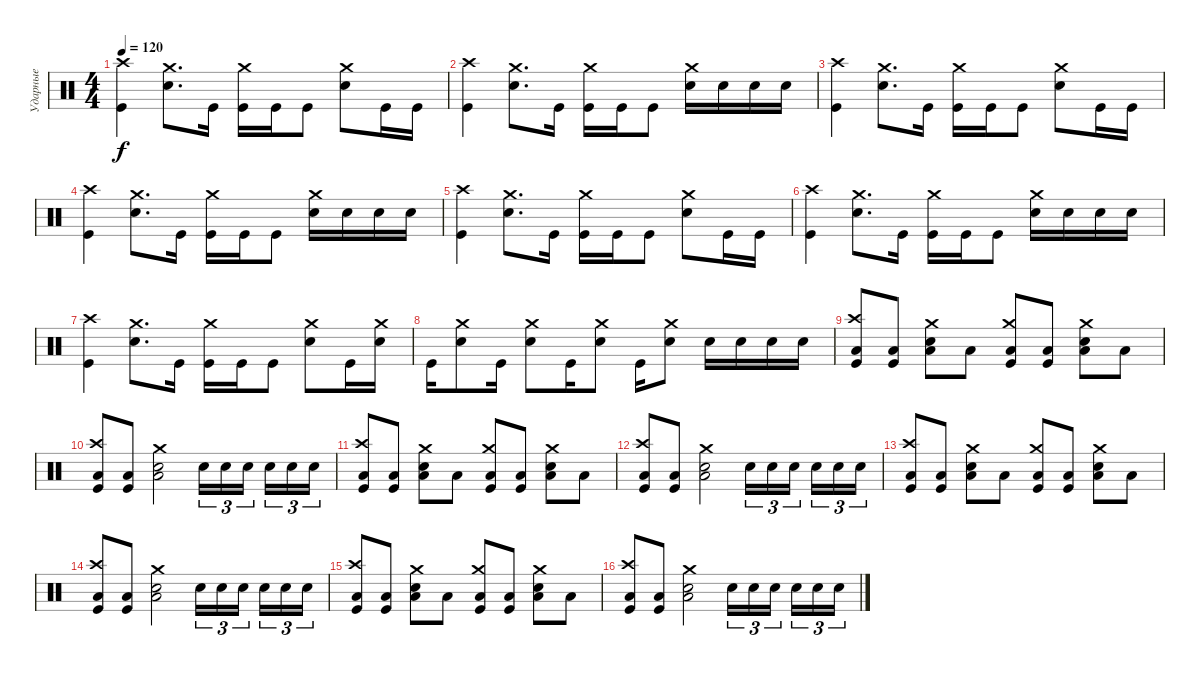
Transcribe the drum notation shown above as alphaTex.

\track ("Ударные" "Ударные") {instrument percussion}
\staff {score}
\articulation defaults
\ts (4 4)
\tempo 120
\clef neutral
\ks c
("Kick (hit)" "Crash high (hit)").4{dy f} ("Snare (hit) 2" "Crash medium (hit)").8{d} "Kick (hit)".16 ("Kick (hit)" "Crash medium (hit)").16 "Kick (hit)".16 "Kick (hit)".8 ("Snare (hit) 2" "Crash medium (hit)").8 "Kick (hit)".16 "Kick (hit)".16 |
("Kick (hit)" "Crash high (hit)").4 ("Snare (hit) 2" "Crash medium (hit)").8{d} "Kick (hit)".16 ("Kick (hit)" "Crash medium (hit)").16 "Kick (hit)".16 "Kick (hit)".8 ("Snare (hit) 2" "Crash medium (hit)").16 "Snare (hit) 2".16 "Snare (hit) 2".16 "Snare (hit) 2".16 |
("Kick (hit)" "Crash high (hit)").4 ("Snare (hit) 2" "Crash medium (hit)").8{d} "Kick (hit)".16 ("Kick (hit)" "Crash medium (hit)").16 "Kick (hit)".16 "Kick (hit)".8 ("Snare (hit) 2" "Crash medium (hit)").8 "Kick (hit)".16 "Kick (hit)".16 |
("Kick (hit)" "Crash high (hit)").4 ("Snare (hit) 2" "Crash medium (hit)").8{d} "Kick (hit)".16 ("Kick (hit)" "Crash medium (hit)").16 "Kick (hit)".16 "Kick (hit)".8 ("Snare (hit) 2" "Crash medium (hit)").16 "Snare (hit) 2".16 "Snare (hit) 2".16 "Snare (hit) 2".16 |
("Kick (hit)" "Crash high (hit)").4 ("Snare (hit) 2" "Crash medium (hit)").8{d} "Kick (hit)".16 ("Kick (hit)" "Crash medium (hit)").16 "Kick (hit)".16 "Kick (hit)".8 ("Snare (hit) 2" "Crash medium (hit)").8 "Kick (hit)".16 "Kick (hit)".16 |
("Kick (hit)" "Crash high (hit)").4 ("Snare (hit) 2" "Crash medium (hit)").8{d} "Kick (hit)".16 ("Kick (hit)" "Crash medium (hit)").16 "Kick (hit)".16 "Kick (hit)".8 ("Snare (hit) 2" "Crash medium (hit)").16 "Snare (hit) 2".16 "Snare (hit) 2".16 "Snare (hit) 2".16 |
("Kick (hit)" "Crash high (hit)").4 ("Snare (hit) 2" "Crash medium (hit)").8{d} "Kick (hit)".16 ("Kick (hit)" "Crash medium (hit)").16 "Kick (hit)".16 "Kick (hit)".8 ("Snare (hit) 2" "Crash medium (hit)").8 "Kick (hit)".16 ("Snare (hit) 2" "Crash medium (hit)").16 |
"Kick (hit)".16 ("Snare (hit) 2" "Crash medium (hit)").8 "Kick (hit)".16 ("Snare (hit) 2" "Crash medium (hit)").8 "Kick (hit)".16 ("Snare (hit) 2" "Crash medium (hit)").8 "Kick (hit)".16 ("Snare (hit) 2" "Crash medium (hit)").8 "Snare (hit) 2".16 "Snare (hit) 2".16 "Snare (hit) 2".16 "Snare (hit) 2".16 |
("Low Tom (hit)" "Kick (hit)" "Crash high (hit)").8 ("Low Tom (hit)" "Kick (hit)").8 ("Low Tom (hit)" "Snare (hit) 2" "Crash medium (hit)").8 "Low Tom (hit)".8 ("Low Tom (hit)" "Kick (hit)" "Crash medium (hit)").8 ("Low Tom (hit)" "Kick (hit)").8 ("Low Tom (hit)" "Snare (hit) 2" "Crash medium (hit)").8 "Low Tom (hit)".8 |
("Low Tom (hit)" "Kick (hit)" "Crash high (hit)").8 ("Low Tom (hit)" "Kick (hit)").8 ("Low Tom (hit)" "Snare (hit) 2" "Crash medium (hit)").2 "Snare (hit) 2".16{tu (3 2)} "Snare (hit) 2".16{tu (3 2)} "Snare (hit) 2".16{tu (3 2) beam splitsecondary} "Snare (hit) 2".16{tu (3 2)} "Snare (hit) 2".16{tu (3 2)} "Snare (hit) 2".16{tu (3 2)} |
("Low Tom (hit)" "Kick (hit)" "Crash high (hit)").8 ("Low Tom (hit)" "Kick (hit)").8 ("Low Tom (hit)" "Snare (hit) 2" "Crash medium (hit)").8 "Low Tom (hit)".8 ("Low Tom (hit)" "Kick (hit)" "Crash medium (hit)").8 ("Low Tom (hit)" "Kick (hit)").8 ("Low Tom (hit)" "Snare (hit) 2" "Crash medium (hit)").8 "Low Tom (hit)".8 |
("Low Tom (hit)" "Kick (hit)" "Crash high (hit)").8 ("Low Tom (hit)" "Kick (hit)").8 ("Low Tom (hit)" "Snare (hit) 2" "Crash medium (hit)").2 "Snare (hit) 2".16{tu (3 2)} "Snare (hit) 2".16{tu (3 2)} "Snare (hit) 2".16{tu (3 2) beam splitsecondary} "Snare (hit) 2".16{tu (3 2)} "Snare (hit) 2".16{tu (3 2)} "Snare (hit) 2".16{tu (3 2)} |
("Low Tom (hit)" "Kick (hit)" "Crash high (hit)").8 ("Low Tom (hit)" "Kick (hit)").8 ("Low Tom (hit)" "Snare (hit) 2" "Crash medium (hit)").8 "Low Tom (hit)".8 ("Low Tom (hit)" "Kick (hit)" "Crash medium (hit)").8 ("Low Tom (hit)" "Kick (hit)").8 ("Low Tom (hit)" "Snare (hit) 2" "Crash medium (hit)").8 "Low Tom (hit)".8 |
("Low Tom (hit)" "Kick (hit)" "Crash high (hit)").8 ("Low Tom (hit)" "Kick (hit)").8 ("Low Tom (hit)" "Snare (hit) 2" "Crash medium (hit)").2 "Snare (hit) 2".16{tu (3 2)} "Snare (hit) 2".16{tu (3 2)} "Snare (hit) 2".16{tu (3 2) beam splitsecondary} "Snare (hit) 2".16{tu (3 2)} "Snare (hit) 2".16{tu (3 2)} "Snare (hit) 2".16{tu (3 2)} |
("Low Tom (hit)" "Kick (hit)" "Crash high (hit)").8 ("Low Tom (hit)" "Kick (hit)").8 ("Low Tom (hit)" "Snare (hit) 2" "Crash medium (hit)").8 "Low Tom (hit)".8 ("Low Tom (hit)" "Kick (hit)" "Crash medium (hit)").8 ("Low Tom (hit)" "Kick (hit)").8 ("Low Tom (hit)" "Snare (hit) 2" "Crash medium (hit)").8 "Low Tom (hit)".8 |
("Low Tom (hit)" "Kick (hit)" "Crash high (hit)").8 ("Low Tom (hit)" "Kick (hit)").8 ("Low Tom (hit)" "Snare (hit) 2" "Crash medium (hit)").2 "Snare (hit) 2".16{tu (3 2)} "Snare (hit) 2".16{tu (3 2)} "Snare (hit) 2".16{tu (3 2) beam splitsecondary} "Snare (hit) 2".16{tu (3 2)} "Snare (hit) 2".16{tu (3 2)} "Snare (hit) 2".16{tu (3 2)}
